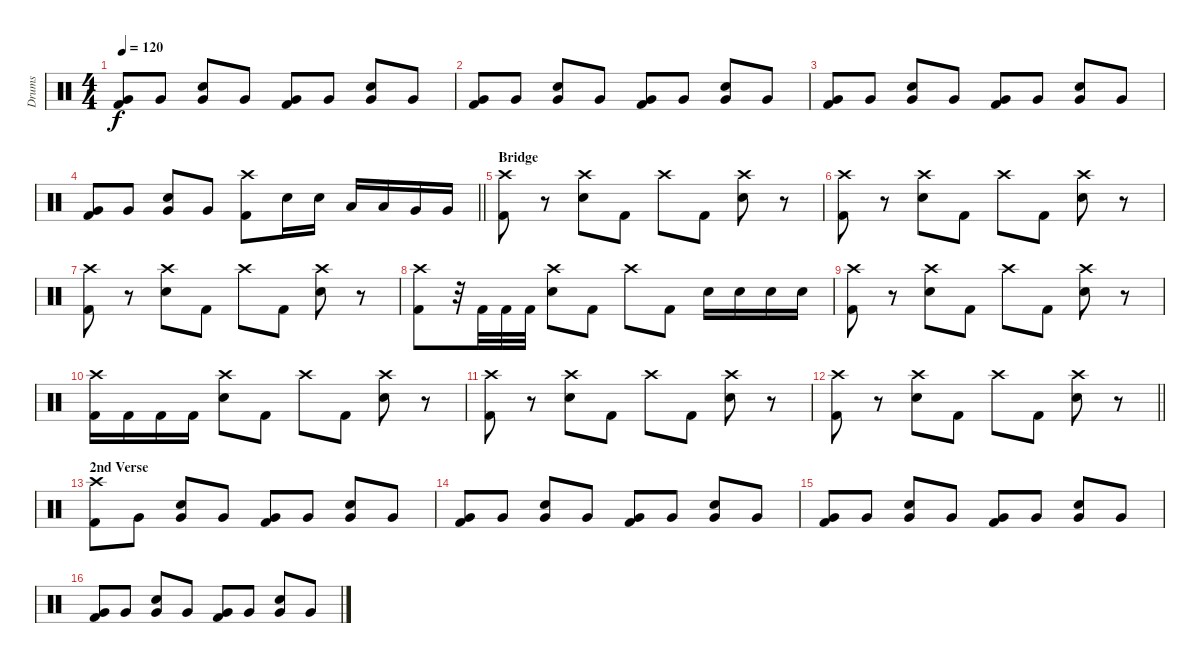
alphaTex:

\track ("Drums" "Drums") {instrument percussion}
\staff {score}
\articulation defaults
\ts (4 4)
\tempo 120
\clef neutral
\ks c
("Very Low Tom (hit)" "Kick (hit) 2").8{dy f} "Very Low Tom (hit)".8 ("Snare (hit) 2" "Very Low Tom (hit)").8 "Very Low Tom (hit)".8 ("Very Low Tom (hit)" "Kick (hit) 2").8 "Very Low Tom (hit)".8 ("Snare (hit) 2" "Very Low Tom (hit)").8 "Very Low Tom (hit)".8 |
("Very Low Tom (hit)" "Kick (hit) 2").8 "Very Low Tom (hit)".8 ("Snare (hit) 2" "Very Low Tom (hit)").8 "Very Low Tom (hit)".8 ("Very Low Tom (hit)" "Kick (hit) 2").8 "Very Low Tom (hit)".8 ("Snare (hit) 2" "Very Low Tom (hit)").8 "Very Low Tom (hit)".8 |
("Very Low Tom (hit)" "Kick (hit) 2").8 "Very Low Tom (hit)".8 ("Snare (hit) 2" "Very Low Tom (hit)").8 "Very Low Tom (hit)".8 ("Very Low Tom (hit)" "Kick (hit) 2").8 "Very Low Tom (hit)".8 ("Snare (hit) 2" "Very Low Tom (hit)").8 "Very Low Tom (hit)".8 |
\barLineRight lightlight
("Very Low Tom (hit)" "Kick (hit) 2").8 "Very Low Tom (hit)".8 ("Snare (hit) 2" "Very Low Tom (hit)").8 "Very Low Tom (hit)".8 ("Crash high (hit)" "Kick (hit) 2").8 "Snare (hit) 2".16 "Snare (hit) 2".16 "Low Tom (hit)".16 "Low Tom (hit)".16 "Very Low Tom (hit)".16 "Very Low Tom (hit)".16 |
\section ("" "Bridge")
("Crash high (hit)" "Kick (hit) 2").8 r.8 ("Crash high (hit)" "Snare (hit) 2").8 "Kick (hit) 2".8 "Crash high (hit)".8 "Kick (hit) 2".8 ("Crash high (hit)" "Snare (hit) 2").8 r.8 |
("Crash high (hit)" "Kick (hit) 2").8 r.8 ("Crash high (hit)" "Snare (hit) 2").8 "Kick (hit) 2".8 "Crash high (hit)".8 "Kick (hit) 2".8 ("Crash high (hit)" "Snare (hit) 2").8 r.8 |
("Crash high (hit)" "Kick (hit) 2").8 r.8 ("Crash high (hit)" "Snare (hit) 2").8 "Kick (hit) 2".8 "Crash high (hit)".8 "Kick (hit) 2".8 ("Crash high (hit)" "Snare (hit) 2").8 r.8 |
("Crash high (hit)" "Kick (hit) 2").8 r.32 "Kick (hit) 2".32 "Kick (hit) 2".32 "Kick (hit) 2".32 ("Crash high (hit)" "Snare (hit) 2").8 "Kick (hit) 2".8 "Crash high (hit)".8 "Kick (hit) 2".8 "Snare (hit) 2".16 "Snare (hit) 2".16 "Snare (hit) 2".16 "Snare (hit) 2".16 |
("Crash high (hit)" "Kick (hit) 2").8 r.8 ("Crash high (hit)" "Snare (hit) 2").8 "Kick (hit) 2".8 "Crash high (hit)".8 "Kick (hit) 2".8 ("Crash high (hit)" "Snare (hit) 2").8 r.8 |
("Crash high (hit)" "Kick (hit) 2").16 "Kick (hit) 2".16 "Kick (hit) 2".16 "Kick (hit) 2".16 ("Crash high (hit)" "Snare (hit) 2").8 "Kick (hit) 2".8 "Crash high (hit)".8 "Kick (hit) 2".8 ("Crash high (hit)" "Snare (hit) 2").8 r.8 |
("Crash high (hit)" "Kick (hit) 2").8 r.8 ("Crash high (hit)" "Snare (hit) 2").8 "Kick (hit) 2".8 "Crash high (hit)".8 "Kick (hit) 2".8 ("Crash high (hit)" "Snare (hit) 2").8 r.8 |
\barLineRight lightlight
("Crash high (hit)" "Kick (hit) 2").8 r.8 ("Crash high (hit)" "Snare (hit) 2").8 "Kick (hit) 2".8 "Crash high (hit)".8 "Kick (hit) 2".8 ("Crash high (hit)" "Snare (hit) 2").8 r.8 |
\section ("" "2nd Verse")
("Crash high (hit)" "Kick (hit) 2").8 "Very Low Tom (hit)".8 ("Snare (hit) 2" "Very Low Tom (hit)").8 "Very Low Tom (hit)".8 ("Very Low Tom (hit)" "Kick (hit) 2").8 "Very Low Tom (hit)".8 ("Snare (hit) 2" "Very Low Tom (hit)").8 "Very Low Tom (hit)".8 |
("Very Low Tom (hit)" "Kick (hit) 2").8 "Very Low Tom (hit)".8 ("Snare (hit) 2" "Very Low Tom (hit)").8 "Very Low Tom (hit)".8 ("Very Low Tom (hit)" "Kick (hit) 2").8 "Very Low Tom (hit)".8 ("Snare (hit) 2" "Very Low Tom (hit)").8 "Very Low Tom (hit)".8 |
("Very Low Tom (hit)" "Kick (hit) 2").8 "Very Low Tom (hit)".8 ("Snare (hit) 2" "Very Low Tom (hit)").8 "Very Low Tom (hit)".8 ("Very Low Tom (hit)" "Kick (hit) 2").8 "Very Low Tom (hit)".8 ("Snare (hit) 2" "Very Low Tom (hit)").8 "Very Low Tom (hit)".8 |
("Very Low Tom (hit)" "Kick (hit) 2").8 "Very Low Tom (hit)".8 ("Snare (hit) 2" "Very Low Tom (hit)").8 "Very Low Tom (hit)".8 ("Very Low Tom (hit)" "Kick (hit) 2").8 "Very Low Tom (hit)".8 ("Snare (hit) 2" "Very Low Tom (hit)").8 "Very Low Tom (hit)".8
